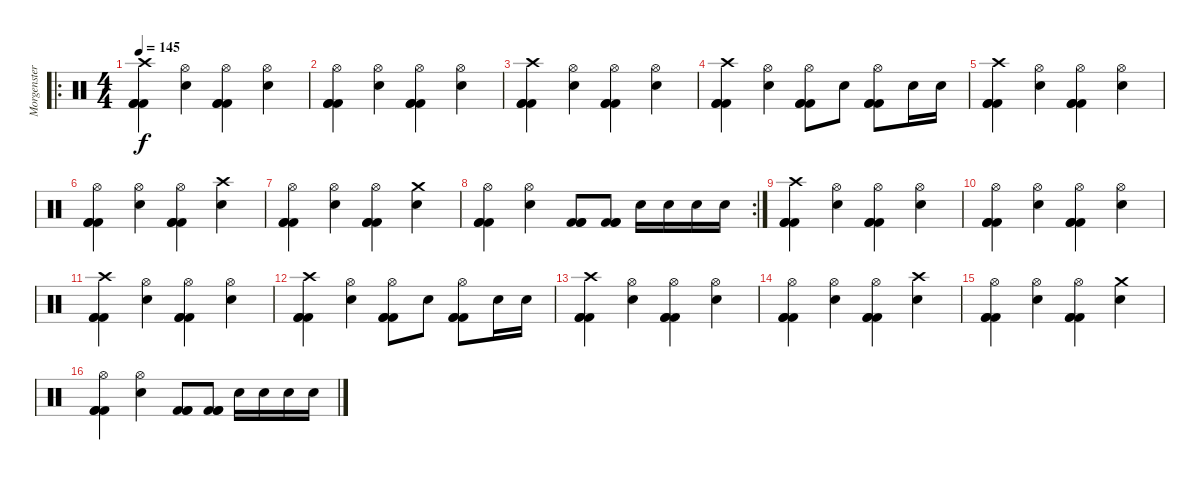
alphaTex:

\track ("Morgenstern (Schlagzeug)" "Morgenster") {instrument percussion}
\staff {score}
\articulation defaults
\ro
\ts (4 4)
\tempo 145
\clef neutral
\ks c
("Crash high (hit)" "Kick (hit) 2" "Kick (hit) 2" "Kick (hit) 2").4{dy f} ("Hi-Hat (open)" "Snare (hit) 2").4 ("Hi-Hat (open)" "Kick (hit) 2" "Kick (hit) 2" "Kick (hit) 2").4 ("Hi-Hat (open)" "Snare (hit) 2").4 |
("Hi-Hat (open)" "Kick (hit) 2" "Kick (hit) 2" "Kick (hit) 2").4 ("Hi-Hat (open)" "Snare (hit) 2").4 ("Hi-Hat (open)" "Kick (hit) 2" "Kick (hit) 2" "Kick (hit) 2").4 ("Hi-Hat (open)" "Snare (hit) 2").4 |
("Crash high (hit)" "Kick (hit) 2" "Kick (hit) 2" "Kick (hit) 2").4 ("Hi-Hat (open)" "Snare (hit) 2").4 ("Hi-Hat (open)" "Kick (hit) 2" "Kick (hit) 2" "Kick (hit) 2").4 ("Hi-Hat (open)" "Snare (hit) 2").4 |
("Crash high (hit)" "Kick (hit) 2" "Kick (hit) 2" "Kick (hit) 2").4 ("Hi-Hat (open)" "Snare (hit) 2").4 ("Hi-Hat (open)" "Kick (hit) 2" "Kick (hit) 2" "Kick (hit) 2").8 "Snare (hit) 2".8 ("Hi-Hat (open)" "Kick (hit) 2" "Kick (hit) 2" "Kick (hit) 2").8 "Snare (hit) 2".16 "Snare (hit) 2".16 |
("Crash high (hit)" "Kick (hit) 2" "Kick (hit) 2" "Kick (hit) 2").4 ("Hi-Hat (open)" "Snare (hit) 2").4 ("Hi-Hat (open)" "Kick (hit) 2" "Kick (hit) 2" "Kick (hit) 2").4 ("Hi-Hat (open)" "Snare (hit) 2").4 |
("Hi-Hat (open)" "Kick (hit) 2" "Kick (hit) 2" "Kick (hit) 2").4 ("Hi-Hat (open)" "Snare (hit) 2").4 ("Hi-Hat (open)" "Kick (hit) 2" "Kick (hit) 2" "Kick (hit) 2").4 ("Crash high (hit)" "Snare (hit) 2").4 |
("Hi-Hat (open)" "Kick (hit) 2" "Kick (hit) 2" "Kick (hit) 2").4 ("Hi-Hat (open)" "Snare (hit) 2").4 ("Hi-Hat (open)" "Kick (hit) 2" "Kick (hit) 2" "Kick (hit) 2").4 ("Crash medium (hit)" "Snare (hit) 2").4 |
\rc 2
("Hi-Hat (open)" "Kick (hit) 2" "Kick (hit) 2" "Kick (hit) 2").4 ("Hi-Hat (open)" "Snare (hit) 2").4 ("Kick (hit) 2" "Kick (hit) 2" "Kick (hit) 2").8 ("Kick (hit) 2" "Kick (hit) 2" "Kick (hit) 2").8 "Snare (hit) 2".16 "Snare (hit) 2".16 "Snare (hit) 2".16 "Snare (hit) 2".16 |
("Crash high (hit)" "Kick (hit) 2" "Kick (hit) 2" "Kick (hit) 2").4 ("Hi-Hat (open)" "Snare (hit) 2").4 ("Hi-Hat (open)" "Kick (hit) 2" "Kick (hit) 2" "Kick (hit) 2").4 ("Hi-Hat (open)" "Snare (hit) 2").4 |
("Hi-Hat (open)" "Kick (hit) 2" "Kick (hit) 2" "Kick (hit) 2").4 ("Hi-Hat (open)" "Snare (hit) 2").4 ("Hi-Hat (open)" "Kick (hit) 2" "Kick (hit) 2" "Kick (hit) 2").4 ("Hi-Hat (open)" "Snare (hit) 2").4 |
("Crash high (hit)" "Kick (hit) 2" "Kick (hit) 2" "Kick (hit) 2").4 ("Hi-Hat (open)" "Snare (hit) 2").4 ("Hi-Hat (open)" "Kick (hit) 2" "Kick (hit) 2" "Kick (hit) 2").4 ("Hi-Hat (open)" "Snare (hit) 2").4 |
("Crash high (hit)" "Kick (hit) 2" "Kick (hit) 2" "Kick (hit) 2").4 ("Hi-Hat (open)" "Snare (hit) 2").4 ("Hi-Hat (open)" "Kick (hit) 2" "Kick (hit) 2" "Kick (hit) 2").8 "Snare (hit) 2".8 ("Hi-Hat (open)" "Kick (hit) 2" "Kick (hit) 2" "Kick (hit) 2").8 "Snare (hit) 2".16 "Snare (hit) 2".16 |
("Crash high (hit)" "Kick (hit) 2" "Kick (hit) 2" "Kick (hit) 2").4 ("Hi-Hat (open)" "Snare (hit) 2").4 ("Hi-Hat (open)" "Kick (hit) 2" "Kick (hit) 2" "Kick (hit) 2").4 ("Hi-Hat (open)" "Snare (hit) 2").4 |
("Hi-Hat (open)" "Kick (hit) 2" "Kick (hit) 2" "Kick (hit) 2").4 ("Hi-Hat (open)" "Snare (hit) 2").4 ("Hi-Hat (open)" "Kick (hit) 2" "Kick (hit) 2" "Kick (hit) 2").4 ("Crash high (hit)" "Snare (hit) 2").4 |
("Hi-Hat (open)" "Kick (hit) 2" "Kick (hit) 2" "Kick (hit) 2").4 ("Hi-Hat (open)" "Snare (hit) 2").4 ("Hi-Hat (open)" "Kick (hit) 2" "Kick (hit) 2" "Kick (hit) 2").4 ("Crash medium (hit)" "Snare (hit) 2").4 |
("Hi-Hat (open)" "Kick (hit) 2" "Kick (hit) 2" "Kick (hit) 2").4 ("Hi-Hat (open)" "Snare (hit) 2").4 ("Kick (hit) 2" "Kick (hit) 2" "Kick (hit) 2").8 ("Kick (hit) 2" "Kick (hit) 2" "Kick (hit) 2").8 "Snare (hit) 2".16 "Snare (hit) 2".16 "Snare (hit) 2".16 "Snare (hit) 2".16
